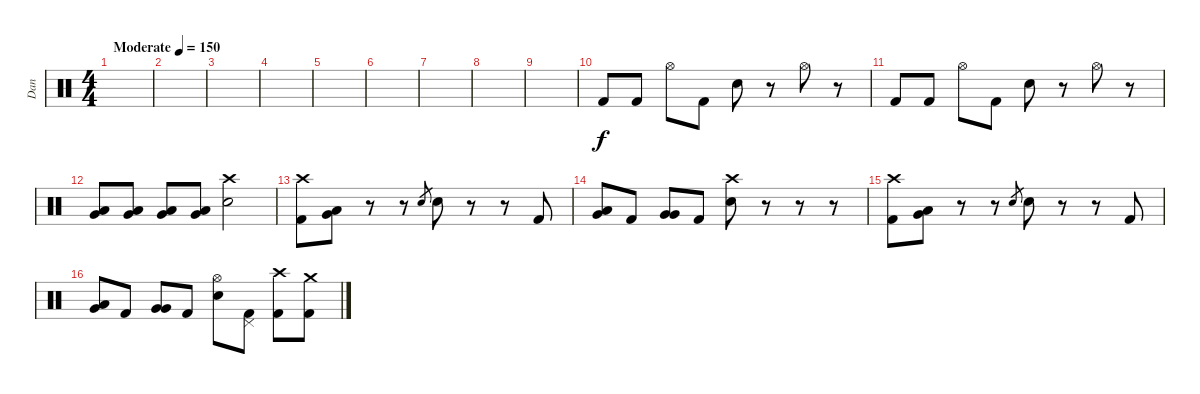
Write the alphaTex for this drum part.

\track ("Dan" "Dan") {instrument percussion}
\staff {score}
\articulation defaults
\ts (4 4)
\tempo (150 "Moderate")
\clef neutral
\ks c
|
|
|
|
|
|
|
|
|
"Kick (hit) 2".8 "Kick (hit) 2".8 "Hi-Hat (open)".8 "Kick (hit) 2".8 "Electric Snare (hit)".8 r.8 "Hi-Hat (open)".8 r.8 |
"Kick (hit) 2".8 "Kick (hit) 2".8 "Hi-Hat (open)".8 "Kick (hit) 2".8 "Electric Snare (hit)".8 r.8 "Hi-Hat (open)".8 r.8 |
("Low Tom (hit)" "Very Low Tom (hit)").8 ("Low Tom (hit)" "Very Low Tom (hit)").8 ("Low Tom (hit)" "Very Low Tom (hit)").8 ("Low Tom (hit)" "Very Low Tom (hit)").8 ("Crash high (hit)" "Electric Snare (hit)").2 |
("Crash high (hit)" "Kick (hit) 2").8 ("Very Low Tom (hit)" "Low Tom (hit)").8 r.8 r.8 "Electric Snare (hit)".8{gr} "Electric Snare (hit)".8 r.8 r.8 "Kick (hit) 2".8 |
("Low Tom (hit)" "Very Low Tom (hit)").8 "Kick (hit) 2".8 ("Very Low Tom (hit)" "Very Low Tom (hit)").8 "Kick (hit) 2".8 ("Crash high (hit)" "Electric Snare (hit)").8 r.8 r.8 r.8 |
("Crash high (hit)" "Kick (hit) 2").8 ("Low Tom (hit)" "Very Low Tom (hit)").8 r.8 r.8 "Electric Snare (hit)".8{gr} "Electric Snare (hit)".8 r.8 r.8 "Kick (hit) 2".8 |
("Low Tom (hit)" "Very Low Tom (hit)").8 "Kick (hit) 2".8 ("Very Low Tom (hit)" "Very Low Tom (hit)").8 "Kick (hit) 2".8 ("Hi-Hat (open)" "Electric Snare (hit)").8 ("Pedal Hi-Hat (hit)" "Kick (hit) 2").8 ("Crash high (hit)" "Kick (hit) 2").8 ("Crash medium (hit)" "Kick (hit) 2").8
